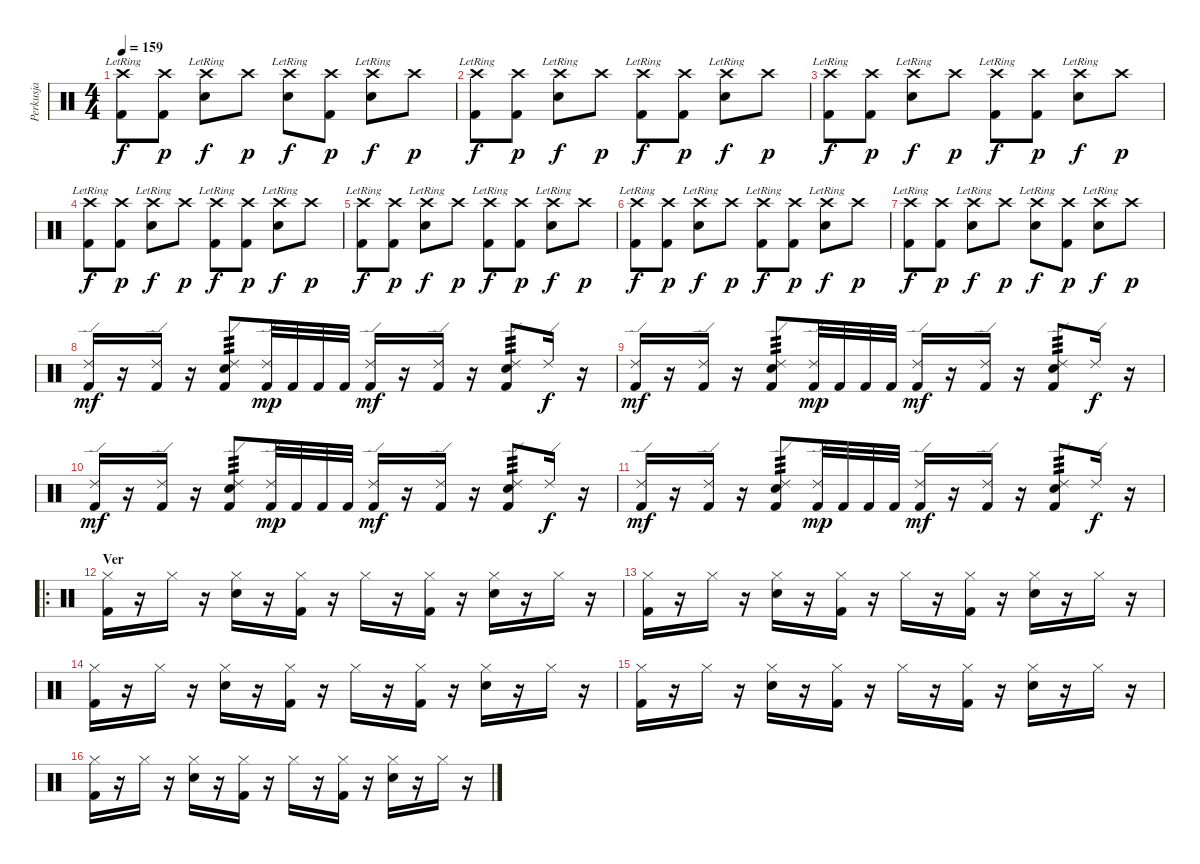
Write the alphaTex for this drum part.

\track ("Perkusja" "Perkusja") {instrument percussion}
\staff {score}
\articulation defaults
\ts (4 4)
\tempo 159
\clef neutral
\ks c
("Crash high (hit)"{lr} "Kick (hit) 2").8{dy f} ("Crash high (hit)" "Kick (hit) 2").8{dy p} ("Crash high (hit)"{lr} "Electric Snare (hit)").8{dy f} "Crash high (hit)".8{dy p} ("Crash high (hit)"{lr} "Electric Snare (hit)").8{dy f} ("Crash high (hit)" "Kick (hit) 2").8{dy p} ("Crash high (hit)"{lr} "Electric Snare (hit)").8{dy f} "Crash high (hit)".8{dy p} |
("Crash high (hit)"{lr} "Kick (hit) 2").8{dy f} ("Crash high (hit)" "Kick (hit) 2").8{dy p} ("Crash high (hit)"{lr} "Electric Snare (hit)").8{dy f} "Crash high (hit)".8{dy p} ("Crash high (hit)"{lr} "Kick (hit) 2").8{dy f} ("Crash high (hit)" "Kick (hit) 2").8{dy p} ("Crash high (hit)"{lr} "Electric Snare (hit)").8{dy f} "Crash high (hit)".8{dy p} |
("Crash high (hit)"{lr} "Kick (hit) 2").8{dy f} ("Crash high (hit)" "Kick (hit) 2").8{dy p} ("Crash high (hit)"{lr} "Electric Snare (hit)").8{dy f} "Crash high (hit)".8{dy p} ("Crash high (hit)"{lr} "Kick (hit) 2").8{dy f} ("Crash high (hit)" "Kick (hit) 2").8{dy p} ("Crash high (hit)"{lr} "Electric Snare (hit)").8{dy f} "Crash high (hit)".8{dy p} |
("Crash high (hit)"{lr} "Kick (hit) 2").8{dy f} ("Crash high (hit)" "Kick (hit) 2").8{dy p} ("Crash high (hit)"{lr} "Electric Snare (hit)").8{dy f} "Crash high (hit)".8{dy p} ("Crash high (hit)"{lr} "Kick (hit) 2").8{dy f} ("Crash high (hit)" "Kick (hit) 2").8{dy p} ("Crash high (hit)"{lr} "Electric Snare (hit)").8{dy f} "Crash high (hit)".8{dy p} |
("Crash high (hit)"{lr} "Kick (hit) 2").8{dy f} ("Crash high (hit)" "Kick (hit) 2").8{dy p} ("Crash high (hit)"{lr} "Electric Snare (hit)").8{dy f} "Crash high (hit)".8{dy p} ("Crash high (hit)"{lr} "Kick (hit) 2").8{dy f} ("Crash high (hit)" "Kick (hit) 2").8{dy p} ("Crash high (hit)"{lr} "Electric Snare (hit)").8{dy f} "Crash high (hit)".8{dy p} |
("Crash high (hit)"{lr} "Kick (hit) 2").8{dy f} ("Crash high (hit)" "Kick (hit) 2").8{dy p} ("Crash high (hit)"{lr} "Electric Snare (hit)").8{dy f} "Crash high (hit)".8{dy p} ("Crash high (hit)"{lr} "Kick (hit) 2").8{dy f} ("Crash high (hit)" "Kick (hit) 2").8{dy p} ("Crash high (hit)"{lr} "Electric Snare (hit)").8{dy f} "Crash high (hit)".8{dy p} |
("Crash high (hit)"{lr} "Kick (hit) 2").8{dy f} ("Crash high (hit)" "Kick (hit) 2").8{dy p} ("Crash high (hit)"{lr} "Electric Snare (hit)").8{dy f} "Crash high (hit)".8{dy p} ("Crash high (hit)"{lr} "Electric Snare (hit)").8{dy f} ("Crash high (hit)" "Kick (hit) 2").8{dy p} ("Crash high (hit)"{lr} "Electric Snare (hit)").8{dy f} "Crash high (hit)".8{dy p} |
("Ride (edge) 2" "Kick (hit) 2").16{dy mf} r.16 ("Ride (edge) 2" "Kick (hit) 2").16 r.16 ("Ride (edge) 2" "Electric Snare (hit)" "Kick (hit) 2").8{tp 3} ("Ride (edge) 2" "Kick (hit) 2").32{dy mp} "Kick (hit) 2".32 "Kick (hit) 2".32 "Kick (hit) 2".32 ("Ride (edge) 2" "Kick (hit) 2").16{dy mf} r.16 ("Ride (edge) 2" "Kick (hit) 2").16 r.16 ("Ride (edge) 2" "Electric Snare (hit)" "Kick (hit) 2").8{tp 3} "Ride (edge) 2".16{dy f} r.16 |
("Ride (edge) 2" "Kick (hit) 2").16{dy mf} r.16 ("Ride (edge) 2" "Kick (hit) 2").16 r.16 ("Ride (edge) 2" "Electric Snare (hit)" "Kick (hit) 2").8{tp 3} ("Ride (edge) 2" "Kick (hit) 2").32{dy mp} "Kick (hit) 2".32 "Kick (hit) 2".32 "Kick (hit) 2".32 ("Ride (edge) 2" "Kick (hit) 2").16{dy mf} r.16 ("Ride (edge) 2" "Kick (hit) 2").16 r.16 ("Ride (edge) 2" "Electric Snare (hit)" "Kick (hit) 2").8{tp 3} "Ride (edge) 2".16{dy f} r.16 |
("Ride (edge) 2" "Kick (hit) 2").16{dy mf} r.16 ("Ride (edge) 2" "Kick (hit) 2").16 r.16 ("Ride (edge) 2" "Electric Snare (hit)" "Kick (hit) 2").8{tp 3} ("Ride (edge) 2" "Kick (hit) 2").32{dy mp} "Kick (hit) 2".32 "Kick (hit) 2".32 "Kick (hit) 2".32 ("Ride (edge) 2" "Kick (hit) 2").16{dy mf} r.16 ("Ride (edge) 2" "Kick (hit) 2").16 r.16 ("Ride (edge) 2" "Electric Snare (hit)" "Kick (hit) 2").8{tp 3} "Ride (edge) 2".16{dy f} r.16 |
("Ride (edge) 2" "Kick (hit) 2").16{dy mf} r.16 ("Ride (edge) 2" "Kick (hit) 2").16 r.16 ("Ride (edge) 2" "Electric Snare (hit)" "Kick (hit) 2").8{tp 3} ("Ride (edge) 2" "Kick (hit) 2").32{dy mp} "Kick (hit) 2".32 "Kick (hit) 2".32 "Kick (hit) 2".32 ("Ride (edge) 2" "Kick (hit) 2").16{dy mf} r.16 ("Ride (edge) 2" "Kick (hit) 2").16 r.16 ("Ride (edge) 2" "Electric Snare (hit)" "Kick (hit) 2").8{tp 3} "Ride (edge) 2".16{dy f} r.16 |
\ro
\section ("" "Ver")
("Hi-Hat (closed)" "Kick (hit) 2").16 r.16 "Hi-Hat (closed)".16 r.16 ("Hi-Hat (closed)" "Electric Snare (hit)").16 r.16 ("Hi-Hat (closed)" "Kick (hit) 2").16 r.16 "Hi-Hat (closed)".16 r.16 ("Hi-Hat (closed)" "Kick (hit) 2").16 r.16 ("Hi-Hat (closed)" "Electric Snare (hit)").16 r.16 "Hi-Hat (closed)".16 r.16 |
("Hi-Hat (closed)" "Kick (hit) 2").16 r.16 "Hi-Hat (closed)".16 r.16 ("Hi-Hat (closed)" "Electric Snare (hit)").16 r.16 ("Hi-Hat (closed)" "Kick (hit) 2").16 r.16 "Hi-Hat (closed)".16 r.16 ("Hi-Hat (closed)" "Kick (hit) 2").16 r.16 ("Hi-Hat (closed)" "Electric Snare (hit)").16 r.16 "Hi-Hat (closed)".16 r.16 |
("Hi-Hat (closed)" "Kick (hit) 2").16 r.16 "Hi-Hat (closed)".16 r.16 ("Hi-Hat (closed)" "Electric Snare (hit)").16 r.16 ("Hi-Hat (closed)" "Kick (hit) 2").16 r.16 "Hi-Hat (closed)".16 r.16 ("Hi-Hat (closed)" "Kick (hit) 2").16 r.16 ("Hi-Hat (closed)" "Electric Snare (hit)").16 r.16 "Hi-Hat (closed)".16 r.16 |
("Hi-Hat (closed)" "Kick (hit) 2").16 r.16 "Hi-Hat (closed)".16 r.16 ("Hi-Hat (closed)" "Electric Snare (hit)").16 r.16 ("Hi-Hat (closed)" "Kick (hit) 2").16 r.16 "Hi-Hat (closed)".16 r.16 ("Hi-Hat (closed)" "Kick (hit) 2").16 r.16 ("Hi-Hat (closed)" "Electric Snare (hit)").16 r.16 "Hi-Hat (closed)".16 r.16 |
("Hi-Hat (closed)" "Kick (hit) 2").16 r.16 "Hi-Hat (closed)".16 r.16 ("Hi-Hat (closed)" "Electric Snare (hit)").16 r.16 ("Hi-Hat (closed)" "Kick (hit) 2").16 r.16 "Hi-Hat (closed)".16 r.16 ("Hi-Hat (closed)" "Kick (hit) 2").16 r.16 ("Hi-Hat (closed)" "Electric Snare (hit)").16 r.16 "Hi-Hat (closed)".16 r.16
